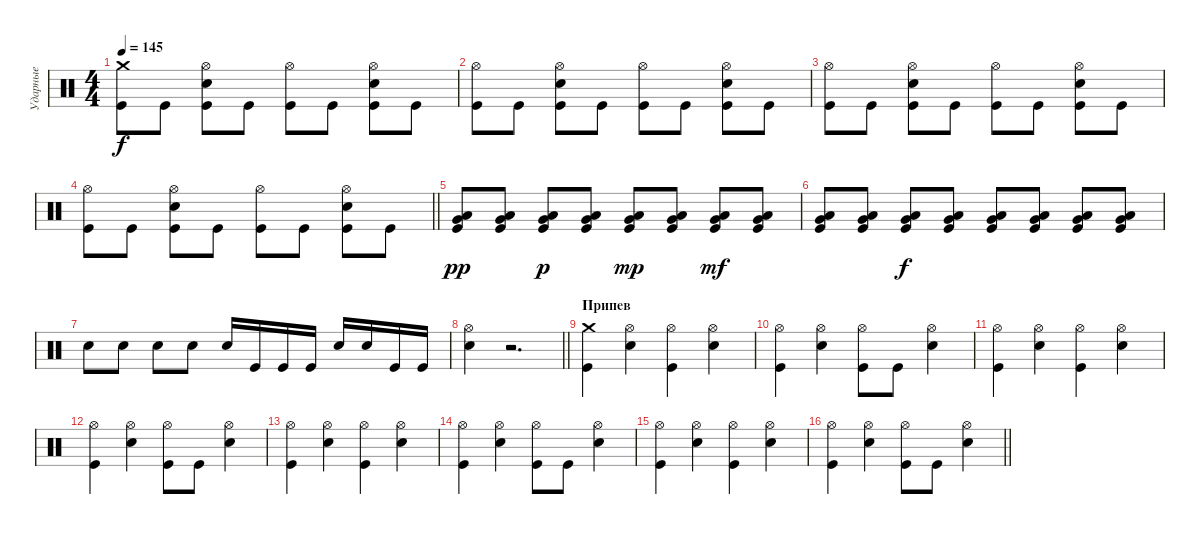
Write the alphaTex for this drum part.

\track ("Ударные" "Ударные") {instrument percussion}
\staff {score}
\articulation defaults
\ts (4 4)
\tempo 145
\clef neutral
\ks c
("Kick (hit)" "Crash medium (hit)").8{dy f} "Kick (hit)".8 ("Kick (hit)" "Snare (hit) 2" "Hi-Hat (open)").8 "Kick (hit)".8 ("Kick (hit)" "Hi-Hat (open)").8 "Kick (hit)".8 ("Kick (hit)" "Snare (hit) 2" "Hi-Hat (open)").8 "Kick (hit)".8 |
("Kick (hit)" "Hi-Hat (open)").8 "Kick (hit)".8 ("Kick (hit)" "Snare (hit) 2" "Hi-Hat (open)").8 "Kick (hit)".8 ("Kick (hit)" "Hi-Hat (open)").8 "Kick (hit)".8 ("Kick (hit)" "Snare (hit) 2" "Hi-Hat (open)").8 "Kick (hit)".8 |
("Kick (hit)" "Hi-Hat (open)").8 "Kick (hit)".8 ("Kick (hit)" "Snare (hit) 2" "Hi-Hat (open)").8 "Kick (hit)".8 ("Kick (hit)" "Hi-Hat (open)").8 "Kick (hit)".8 ("Kick (hit)" "Snare (hit) 2" "Hi-Hat (open)").8 "Kick (hit)".8 |
\barLineRight lightlight
("Kick (hit)" "Hi-Hat (open)").8 "Kick (hit)".8 ("Kick (hit)" "Snare (hit) 2" "Hi-Hat (open)").8 "Kick (hit)".8 ("Kick (hit)" "Hi-Hat (open)").8 "Kick (hit)".8 ("Kick (hit)" "Snare (hit) 2" "Hi-Hat (open)").8 "Kick (hit)".8 |
\section ("" "")
("Kick (hit)" "Very Low Tom (hit)" "Low Tom (hit)").8{dy pp} ("Kick (hit)" "Very Low Tom (hit)" "Low Tom (hit)").8 ("Kick (hit)" "Very Low Tom (hit)" "Low Tom (hit)").8{dy p} ("Kick (hit)" "Very Low Tom (hit)" "Low Tom (hit)").8 ("Kick (hit)" "Very Low Tom (hit)" "Low Tom (hit)").8{dy mp} ("Kick (hit)" "Very Low Tom (hit)" "Low Tom (hit)").8 ("Kick (hit)" "Very Low Tom (hit)" "Low Tom (hit)").8{dy mf} ("Kick (hit)" "Very Low Tom (hit)" "Low Tom (hit)").8 |
("Kick (hit)" "Very Low Tom (hit)" "Low Tom (hit)").8 ("Kick (hit)" "Very Low Tom (hit)" "Low Tom (hit)").8 ("Kick (hit)" "Very Low Tom (hit)" "Low Tom (hit)").8{dy f} ("Kick (hit)" "Very Low Tom (hit)" "Low Tom (hit)").8 ("Kick (hit)" "Very Low Tom (hit)" "Low Tom (hit)").8 ("Kick (hit)" "Very Low Tom (hit)" "Low Tom (hit)").8 ("Kick (hit)" "Very Low Tom (hit)" "Low Tom (hit)").8 ("Kick (hit)" "Very Low Tom (hit)" "Low Tom (hit)").8 |
"Snare (hit) 2".8 "Snare (hit) 2".8 "Snare (hit) 2".8 "Snare (hit) 2".8 "Snare (hit) 2".16 "Kick (hit)".16 "Kick (hit)".16 "Kick (hit)".16 "Snare (hit) 2".16 "Snare (hit) 2".16 "Kick (hit)".16 "Kick (hit)".16 |
\barLineRight lightlight
("Snare (hit) 2" "Hi-Hat (open)").4 r.2{d} |
\section ("" "Припев")
("Kick (hit)" "Crash medium (hit)").4 ("Snare (hit) 2" "Hi-Hat (open)").4 ("Kick (hit)" "Hi-Hat (open)").4 ("Snare (hit) 2" "Hi-Hat (open)").4 |
("Kick (hit)" "Hi-Hat (open)").4 ("Snare (hit) 2" "Hi-Hat (open)").4 ("Kick (hit)" "Hi-Hat (open)").8 "Kick (hit)".8 ("Snare (hit) 2" "Hi-Hat (open)").4 |
("Kick (hit)" "Hi-Hat (open)").4 ("Snare (hit) 2" "Hi-Hat (open)").4 ("Kick (hit)" "Hi-Hat (open)").4 ("Snare (hit) 2" "Hi-Hat (open)").4 |
("Kick (hit)" "Hi-Hat (open)").4 ("Snare (hit) 2" "Hi-Hat (open)").4 ("Kick (hit)" "Hi-Hat (open)").8 "Kick (hit)".8 ("Snare (hit) 2" "Hi-Hat (open)").4 |
("Kick (hit)" "Hi-Hat (open)").4 ("Snare (hit) 2" "Hi-Hat (open)").4 ("Kick (hit)" "Hi-Hat (open)").4 ("Snare (hit) 2" "Hi-Hat (open)").4 |
("Kick (hit)" "Hi-Hat (open)").4 ("Snare (hit) 2" "Hi-Hat (open)").4 ("Kick (hit)" "Hi-Hat (open)").8 "Kick (hit)".8 ("Snare (hit) 2" "Hi-Hat (open)").4 |
("Kick (hit)" "Hi-Hat (open)").4 ("Snare (hit) 2" "Hi-Hat (open)").4 ("Kick (hit)" "Hi-Hat (open)").4 ("Snare (hit) 2" "Hi-Hat (open)").4 |
\barLineRight lightlight
("Kick (hit)" "Hi-Hat (open)").4 ("Snare (hit) 2" "Hi-Hat (open)").4 ("Kick (hit)" "Hi-Hat (open)").8 "Kick (hit)".8 ("Snare (hit) 2" "Hi-Hat (open)").4
